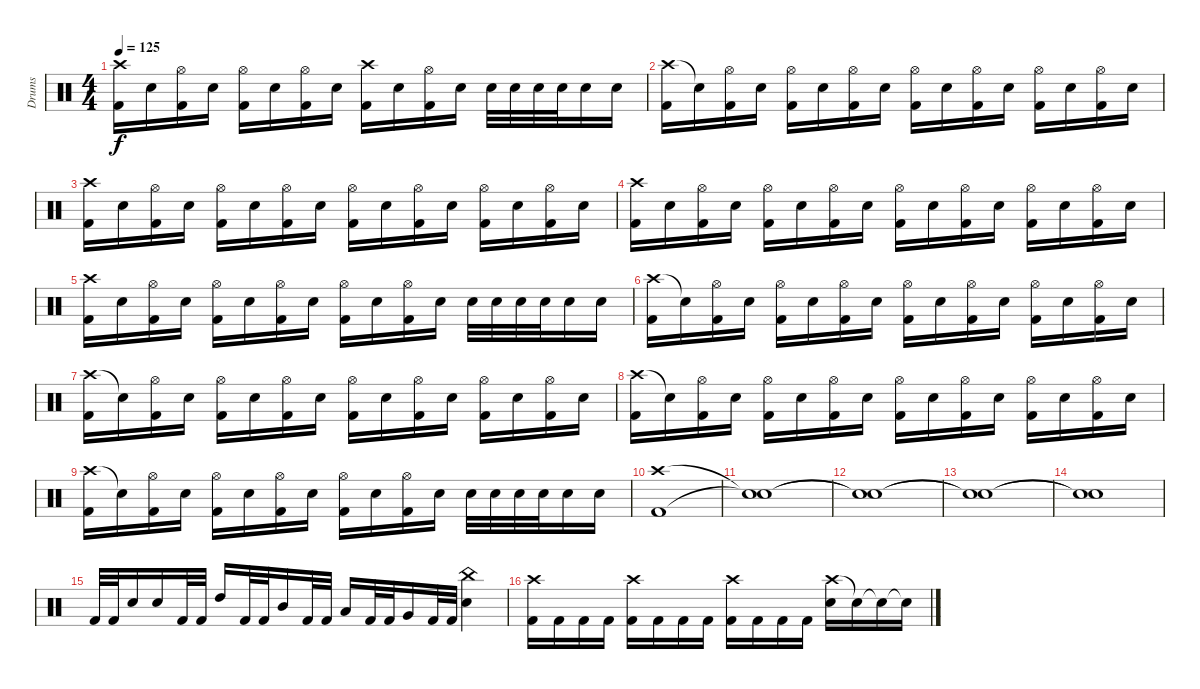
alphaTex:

\track ("Drums" "Drums") {instrument percussion}
\staff {score}
\articulation defaults
\ts (4 4)
\tempo 125
\clef neutral
\ks c
("Crash high (hit)" "Kick (hit) 2").16{dy f} "Electric Snare (hit)".16 ("Hi-Hat (open)" "Kick (hit) 2").16 "Electric Snare (hit)".16 ("Hi-Hat (open)" "Kick (hit) 2").16 "Electric Snare (hit)".16 ("Hi-Hat (open)" "Kick (hit) 2").16 "Electric Snare (hit)".16 ("Crash high (hit)" "Kick (hit) 2").16 "Electric Snare (hit)".16 ("Hi-Hat (open)" "Kick (hit) 2").16 "Electric Snare (hit)".16 "Electric Snare (hit)".32 "Electric Snare (hit)".32 "Electric Snare (hit)".32 "Electric Snare (hit)".32 "Electric Snare (hit)".16 "Electric Snare (hit)".16 |
("Crash high (hit)" "Kick (hit) 2").16 "Snare (hit)"{t}.16 ("Hi-Hat (open)" "Kick (hit) 2").16 "Electric Snare (hit)".16 ("Hi-Hat (open)" "Kick (hit) 2").16 "Electric Snare (hit)".16 ("Hi-Hat (open)" "Kick (hit) 2").16 "Electric Snare (hit)".16 ("Hi-Hat (open)" "Kick (hit) 2").16 "Electric Snare (hit)".16 ("Hi-Hat (open)" "Kick (hit) 2").16 "Electric Snare (hit)".16 ("Hi-Hat (open)" "Kick (hit) 2").16 "Electric Snare (hit)".16 ("Hi-Hat (open)" "Kick (hit) 2").16 "Electric Snare (hit)".16 |
("Crash high (hit)" "Kick (hit) 2").16 "Electric Snare (hit)".16 ("Hi-Hat (open)" "Kick (hit) 2").16 "Electric Snare (hit)".16 ("Hi-Hat (open)" "Kick (hit) 2").16 "Electric Snare (hit)".16 ("Hi-Hat (open)" "Kick (hit) 2").16 "Electric Snare (hit)".16 ("Hi-Hat (open)" "Kick (hit) 2").16 "Electric Snare (hit)".16 ("Hi-Hat (open)" "Kick (hit) 2").16 "Electric Snare (hit)".16 ("Hi-Hat (open)" "Kick (hit) 2").16 "Electric Snare (hit)".16 ("Hi-Hat (open)" "Kick (hit) 2").16 "Electric Snare (hit)".16 |
("Crash high (hit)" "Kick (hit) 2").16 "Electric Snare (hit)".16 ("Hi-Hat (open)" "Kick (hit) 2").16 "Electric Snare (hit)".16 ("Hi-Hat (open)" "Kick (hit) 2").16 "Electric Snare (hit)".16 ("Hi-Hat (open)" "Kick (hit) 2").16 "Electric Snare (hit)".16 ("Hi-Hat (open)" "Kick (hit) 2").16 "Electric Snare (hit)".16 ("Hi-Hat (open)" "Kick (hit) 2").16 "Electric Snare (hit)".16 ("Hi-Hat (open)" "Kick (hit) 2").16 "Electric Snare (hit)".16 ("Hi-Hat (open)" "Kick (hit) 2").16 "Electric Snare (hit)".16 |
("Crash high (hit)" "Kick (hit) 2").16 "Electric Snare (hit)".16 ("Hi-Hat (open)" "Kick (hit) 2").16 "Electric Snare (hit)".16 ("Hi-Hat (open)" "Kick (hit) 2").16 "Electric Snare (hit)".16 ("Hi-Hat (open)" "Kick (hit) 2").16 "Electric Snare (hit)".16 ("Hi-Hat (open)" "Kick (hit) 2").16 "Electric Snare (hit)".16 ("Hi-Hat (open)" "Kick (hit) 2").16 "Electric Snare (hit)".16 "Electric Snare (hit)".32 "Electric Snare (hit)".32 "Electric Snare (hit)".32 "Electric Snare (hit)".32 "Electric Snare (hit)".16 "Electric Snare (hit)".16 |
("Crash high (hit)" "Kick (hit) 2").16 "Snare (hit)"{t}.16 ("Hi-Hat (open)" "Kick (hit) 2").16 "Electric Snare (hit)".16 ("Hi-Hat (open)" "Kick (hit) 2").16 "Electric Snare (hit)".16 ("Hi-Hat (open)" "Kick (hit) 2").16 "Electric Snare (hit)".16 ("Hi-Hat (open)" "Kick (hit) 2").16 "Electric Snare (hit)".16 ("Hi-Hat (open)" "Kick (hit) 2").16 "Electric Snare (hit)".16 ("Hi-Hat (open)" "Kick (hit) 2").16 "Electric Snare (hit)".16 ("Hi-Hat (open)" "Kick (hit) 2").16 "Electric Snare (hit)".16 |
("Crash high (hit)" "Kick (hit) 2").16 "Snare (hit)"{t}.16 ("Hi-Hat (open)" "Kick (hit) 2").16 "Electric Snare (hit)".16 ("Hi-Hat (open)" "Kick (hit) 2").16 "Electric Snare (hit)".16 ("Hi-Hat (open)" "Kick (hit) 2").16 "Electric Snare (hit)".16 ("Hi-Hat (open)" "Kick (hit) 2").16 "Electric Snare (hit)".16 ("Hi-Hat (open)" "Kick (hit) 2").16 "Electric Snare (hit)".16 ("Hi-Hat (open)" "Kick (hit) 2").16 "Electric Snare (hit)".16 ("Hi-Hat (open)" "Kick (hit) 2").16 "Electric Snare (hit)".16 |
("Crash high (hit)" "Kick (hit) 2").16 "Snare (hit)"{t}.16 ("Hi-Hat (open)" "Kick (hit) 2").16 "Electric Snare (hit)".16 ("Hi-Hat (open)" "Kick (hit) 2").16 "Electric Snare (hit)".16 ("Hi-Hat (open)" "Kick (hit) 2").16 "Electric Snare (hit)".16 ("Hi-Hat (open)" "Kick (hit) 2").16 "Electric Snare (hit)".16 ("Hi-Hat (open)" "Kick (hit) 2").16 "Electric Snare (hit)".16 ("Hi-Hat (open)" "Kick (hit) 2").16 "Electric Snare (hit)".16 ("Hi-Hat (open)" "Kick (hit) 2").16 "Electric Snare (hit)".16 |
("Crash high (hit)" "Kick (hit) 2").16 "Snare (hit)"{t}.16 ("Hi-Hat (open)" "Kick (hit) 2").16 "Electric Snare (hit)".16 ("Hi-Hat (open)" "Kick (hit) 2").16 "Electric Snare (hit)".16 ("Hi-Hat (open)" "Kick (hit) 2").16 "Electric Snare (hit)".16 ("Hi-Hat (open)" "Kick (hit) 2").16 "Electric Snare (hit)".16 ("Hi-Hat (open)" "Kick (hit) 2").16 "Electric Snare (hit)".16 "Electric Snare (hit)".32 "Electric Snare (hit)".32 "Electric Snare (hit)".32 "Electric Snare (hit)".32 "Electric Snare (hit)".16 "Electric Snare (hit)".16 |
("Crash high (hit)" "Kick (hit) 2").1 |
("Snare (hit)"{t} "Snare (hit)"{t}).1 |
("Snare (hit)"{t} "Snare (hit)"{t}).1 |
("Snare (hit)"{t} "Snare (hit)"{t}).1 |
("Snare (hit)"{t} "Snare (hit)"{t}).1 |
"Kick (hit) 2".32 "Kick (hit) 2".32 "Electric Snare (hit)".16 "Electric Snare (hit)".16 "Kick (hit) 2".32 "Kick (hit) 2".32 "High Tom (hit)".16 "Kick (hit) 2".32 "Kick (hit) 2".32 "Mid Tom (hit)".16 "Kick (hit) 2".32 "Kick (hit) 2".32 "Low Tom (hit)".16 "Kick (hit) 2".32 "Kick (hit) 2".32 "Very Low Tom (hit)".16 "Kick (hit) 2".32 "Kick (hit) 2".32 ("China (hit)" "Electric Snare (hit)").4 |
("Crash high (hit)" "Kick (hit) 2").16 "Kick (hit) 2".16 "Kick (hit) 2".16 "Kick (hit) 2".16 ("Crash high (hit)" "Kick (hit) 2").16 "Kick (hit) 2".16 "Kick (hit) 2".16 "Kick (hit) 2".16 ("Crash high (hit)" "Kick (hit) 2").16 "Kick (hit) 2".16 "Kick (hit) 2".16 "Kick (hit) 2".16 ("Crash high (hit)" "Electric Snare (hit)").16 "Snare (hit)"{t}.16 "Snare (hit)"{t}.16 "Snare (hit)"{t}.16
